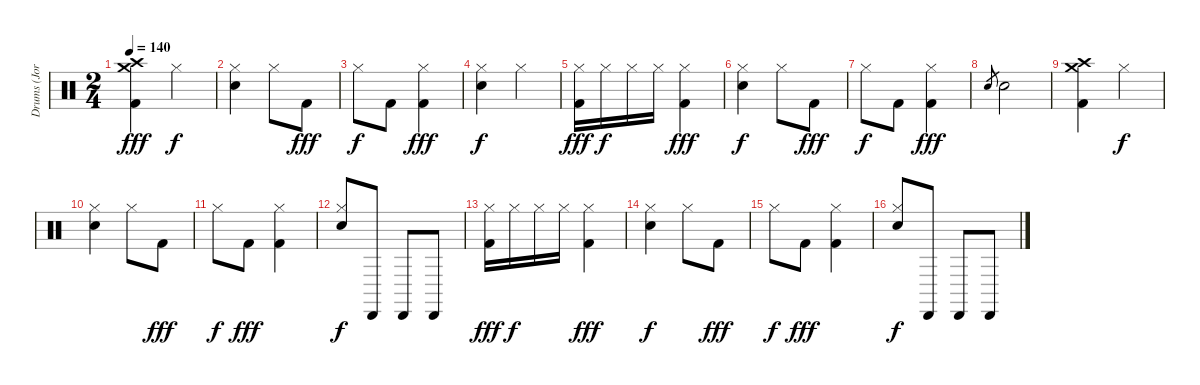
\track ("Drums (Jordan Hastings)" "Drums (Jor") {instrument percussion}
\staff {score}
\articulation defaults
\ts (2 4)
\tempo 140
\clef neutral
\ks c
("Crash medium (hit)" "Crash high (hit)" "Kick (hit) 2").4{dy fff} "Hi-Hat (closed)".4{dy f} |
("Hi-Hat (closed)" "Electric Snare (hit)").4 "Hi-Hat (closed)".8 "Kick (hit) 2".8{dy fff} |
"Hi-Hat (closed)".8{dy f} "Kick (hit) 2".8 ("Hi-Hat (closed)" "Kick (hit) 2").4{dy fff} |
("Hi-Hat (closed)" "Electric Snare (hit)").4{dy f} "Hi-Hat (closed)".4 |
("Hi-Hat (closed)" "Kick (hit) 2").16{dy fff} "Hi-Hat (closed)".16{dy f} "Hi-Hat (closed)".16 "Hi-Hat (closed)".16 ("Hi-Hat (closed)" "Kick (hit) 2").4{dy fff} |
("Hi-Hat (closed)" "Electric Snare (hit)").4{dy f} "Hi-Hat (closed)".8 "Kick (hit) 2".8{dy fff} |
"Hi-Hat (closed)".8{dy f} "Kick (hit) 2".8 ("Hi-Hat (closed)" "Kick (hit) 2").4{dy fff} |
"Electric Snare (hit)".8{gr} "Electric Snare (hit)".2 |
("Crash medium (hit)" "Crash high (hit)" "Kick (hit) 2").4 "Hi-Hat (closed)".4{dy f} |
("Hi-Hat (closed)" "Electric Snare (hit)").4 "Hi-Hat (closed)".8 "Kick (hit) 2".8{dy fff} |
"Hi-Hat (closed)".8{dy f} "Kick (hit) 2".8{dy fff} ("Hi-Hat (closed)" "Kick (hit) 2").4 |
("Hi-Hat (closed)" "Electric Snare (hit)").8{dy f} "Cabasa (hit)".8 "Cabasa (hit)".8 "Cabasa (hit)".8 |
("Hi-Hat (closed)" "Kick (hit) 2").16{dy fff} "Hi-Hat (closed)".16{dy f} "Hi-Hat (closed)".16 "Hi-Hat (closed)".16 ("Hi-Hat (closed)" "Kick (hit) 2").4{dy fff} |
("Hi-Hat (closed)" "Electric Snare (hit)").4{dy f} "Hi-Hat (closed)".8 "Kick (hit) 2".8{dy fff} |
"Hi-Hat (closed)".8{dy f} "Kick (hit) 2".8{dy fff} ("Hi-Hat (closed)" "Kick (hit) 2").4 |
("Hi-Hat (closed)" "Electric Snare (hit)").8{dy f} "Cabasa (hit)".8 "Cabasa (hit)".8 "Cabasa (hit)".8
